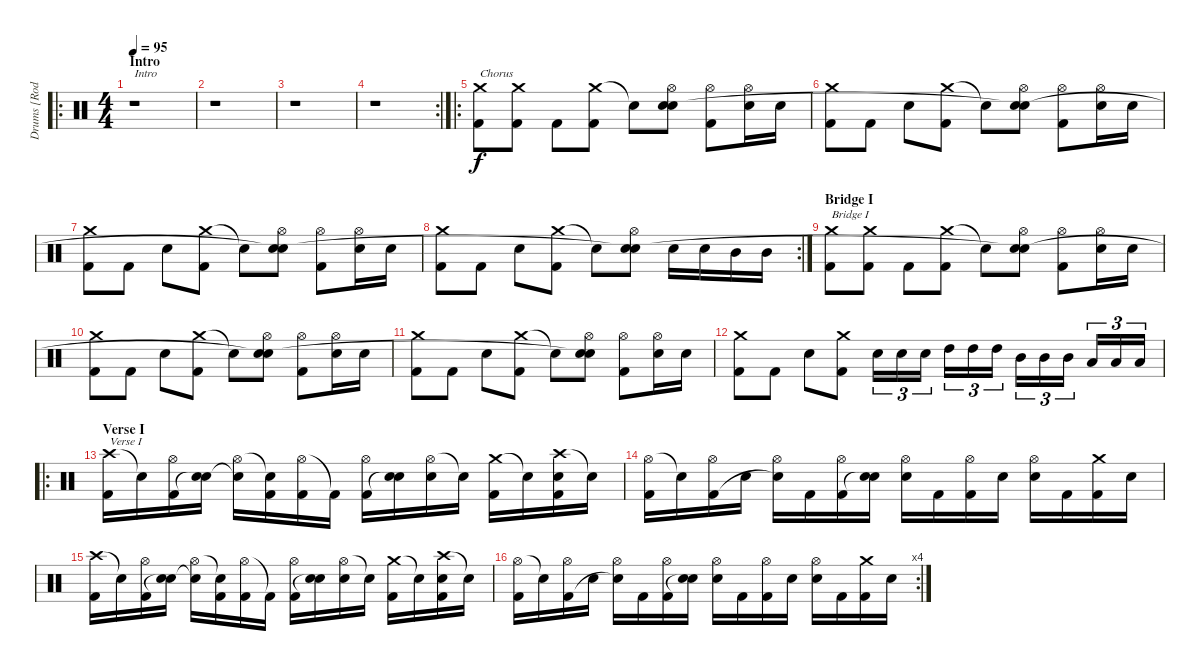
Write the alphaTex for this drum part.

\track ("Drums [Rodney Holder]" "Drums [Rod") {instrument percussion}
\staff {score}
\articulation defaults
\ro
\ts (4 4)
\section ("" "Intro")
\tempo 95
\clef neutral
\ks c
r.1{txt "Intro" dy f} |
r.1 |
r.1 |
\rc 2
r.1 |
\ro
("Crash medium (hit)" "Kick (hit) 2").8{txt "Chorus"} ("Crash medium (hit)" "Kick (hit) 2").8 "Kick (hit) 2".8 ("Crash medium (hit)" "Kick (hit) 2").8 "Snare (hit)"{t}.8 ("Hi-Hat (open)" "Electric Snare (hit)" "Snare (hit)").8 ("Hi-Hat (open)" "Kick (hit) 2").8 ("Hi-Hat (open)" "Electric Snare (hit)").16 "Electric Snare (hit)".16 |
("Crash medium (hit)" "Kick (hit) 2").8 "Kick (hit) 2".8 "Electric Snare (hit)".8 ("Crash medium (hit)" "Kick (hit) 2").8 "Snare (hit)"{t}.8 ("Hi-Hat (open)" "Electric Snare (hit)" "Snare (hit)"{t}).8 ("Hi-Hat (open)" "Kick (hit) 2").8 ("Hi-Hat (open)" "Electric Snare (hit)").16 "Electric Snare (hit)".16 |
("Crash medium (hit)" "Kick (hit) 2").8 "Kick (hit) 2".8 "Electric Snare (hit)".8 ("Crash medium (hit)" "Kick (hit) 2").8 "Snare (hit)"{t}.8 ("Hi-Hat (open)" "Electric Snare (hit)" "Snare (hit)"{t}).8 ("Hi-Hat (open)" "Kick (hit) 2").8 ("Hi-Hat (open)" "Electric Snare (hit)").16 "Electric Snare (hit)".16 |
\rc 2
("Crash medium (hit)" "Kick (hit) 2").8 "Kick (hit) 2".8 "Electric Snare (hit)".8 ("Crash medium (hit)" "Kick (hit) 2").8 "Snare (hit)"{t}.8 ("Hi-Hat (open)" "Electric Snare (hit)" "Snare (hit)"{t}).8 "Electric Snare (hit)".16 "Electric Snare (hit)".16 "Mid Tom (hit)".16 "Mid Tom (hit)".16 |
\section ("" "Bridge I")
("Crash medium (hit)" "Kick (hit) 2").8{txt "Bridge I"} ("Crash medium (hit)" "Kick (hit) 2").8 "Kick (hit) 2".8 ("Crash medium (hit)" "Kick (hit) 2").8 "Snare (hit)"{t}.8 ("Hi-Hat (open)" "Electric Snare (hit)" "Snare (hit)"{t}).8 ("Hi-Hat (open)" "Kick (hit) 2").8 ("Hi-Hat (open)" "Electric Snare (hit)").16 "Electric Snare (hit)".16 |
("Crash medium (hit)" "Kick (hit) 2").8 "Kick (hit) 2".8 "Electric Snare (hit)".8 ("Crash medium (hit)" "Kick (hit) 2").8 "Snare (hit)"{t}.8 ("Hi-Hat (open)" "Electric Snare (hit)" "Snare (hit)"{t}).8 ("Hi-Hat (open)" "Kick (hit) 2").8 ("Hi-Hat (open)" "Electric Snare (hit)").16 "Electric Snare (hit)".16 |
("Crash medium (hit)" "Kick (hit) 2").8 "Kick (hit) 2".8 "Electric Snare (hit)".8 ("Crash medium (hit)" "Kick (hit) 2").8 "Snare (hit)"{t}.8 ("Hi-Hat (open)" "Electric Snare (hit)" "Snare (hit)"{t}).8 ("Hi-Hat (open)" "Kick (hit) 2").8 ("Hi-Hat (open)" "Electric Snare (hit)").16 "Electric Snare (hit)".16 |
("Crash medium (hit)" "Kick (hit) 2").8 "Kick (hit) 2".8 "Electric Snare (hit)".8 ("Crash medium (hit)" "Kick (hit) 2").8 "Electric Snare (hit)".16{tu (3 2)} "Electric Snare (hit)".16{tu (3 2)} "Electric Snare (hit)".16{tu (3 2)} "High Tom (hit)".16{tu (3 2)} "High Tom (hit)".16{tu (3 2)} "High Tom (hit)".16{tu (3 2)} "Mid Tom (hit)".16{tu (3 2)} "Mid Tom (hit)".16{tu (3 2)} "Mid Tom (hit)".16{tu (3 2)} "Low Tom (hit)".16{tu (3 2)} "Low Tom (hit)".16{tu (3 2)} "Low Tom (hit)".16{tu (3 2)} |
\ro
\section ("" "Verse I")
("Crash high (hit)" "Kick (hit) 2").16{txt "Verse I"} "Snare (hit)"{t}.16 ("Hi-Hat (open)" "Kick (hit) 2").16 ("Electric Snare (hit)" "Snare (hit)"{t}).16 ("Hi-Hat (open)" "Electric Snare (hit)"{t}).16 ("Snare (hit)"{t} "Kick (hit) 2").16 ("Hi-Hat (open)" "Kick (hit) 2").16 "Kick (hit) 2"{t}.16 ("Hi-Hat (open)" "Kick (hit) 2").16 ("Electric Snare (hit)" "Snare (hit)"{t}).16 ("Hi-Hat (open)" "Electric Snare (hit)").16 "Snare (hit)"{t}.16 ("Crash medium (hit)" "Kick (hit) 2").16 "Snare (hit)"{t}.16 ("Crash high (hit)" "Electric Snare (hit)" "Kick (hit) 2").16 "Snare (hit)"{t}.16 |
("Hi-Hat (open)" "Kick (hit) 2").16 "Snare (hit)"{t}.16 ("Hi-Hat (open)" "Kick (hit) 2").16 "Electric Snare (hit)".16 ("Hi-Hat (open)" "Snare (hit)"{t}).16 "Kick (hit) 2".16 ("Hi-Hat (open)" "Kick (hit) 2").16 ("Electric Snare (hit)" "Snare (hit)"{t}).16 ("Hi-Hat (open)" "Electric Snare (hit)").16 "Kick (hit) 2".16 ("Hi-Hat (open)" "Kick (hit) 2").16 "Electric Snare (hit)".16 ("Hi-Hat (open)" "Electric Snare (hit)").16 "Kick (hit) 2".16 ("Crash medium (hit)" "Kick (hit) 2").16 "Electric Snare (hit)".16 |
("Crash high (hit)" "Kick (hit) 2").16 "Snare (hit)"{t}.16 ("Hi-Hat (open)" "Kick (hit) 2").16 ("Electric Snare (hit)" "Snare (hit)"{t}).16 ("Hi-Hat (open)" "Electric Snare (hit)"{t}).16 ("Snare (hit)"{t} "Kick (hit) 2").16 ("Hi-Hat (open)" "Kick (hit) 2").16 "Kick (hit) 2"{t}.16 ("Hi-Hat (open)" "Kick (hit) 2").16 ("Electric Snare (hit)" "Snare (hit)"{t}).16 ("Hi-Hat (open)" "Electric Snare (hit)").16 "Snare (hit)"{t}.16 ("Crash medium (hit)" "Kick (hit) 2").16 "Snare (hit)"{t}.16 ("Crash high (hit)" "Electric Snare (hit)" "Kick (hit) 2").16 "Snare (hit)"{t}.16 |
\rc 4
("Hi-Hat (open)" "Kick (hit) 2").16 "Snare (hit)"{t}.16 ("Hi-Hat (open)" "Kick (hit) 2").16 "Electric Snare (hit)".16 ("Hi-Hat (open)" "Snare (hit)"{t}).16 "Kick (hit) 2".16 ("Hi-Hat (open)" "Kick (hit) 2").16 ("Electric Snare (hit)" "Snare (hit)"{t}).16 ("Hi-Hat (open)" "Electric Snare (hit)").16 "Kick (hit) 2".16 ("Hi-Hat (open)" "Kick (hit) 2").16 "Electric Snare (hit)".16 ("Hi-Hat (open)" "Electric Snare (hit)").16 "Kick (hit) 2".16 ("Crash medium (hit)" "Kick (hit) 2").16 "Electric Snare (hit)".16
